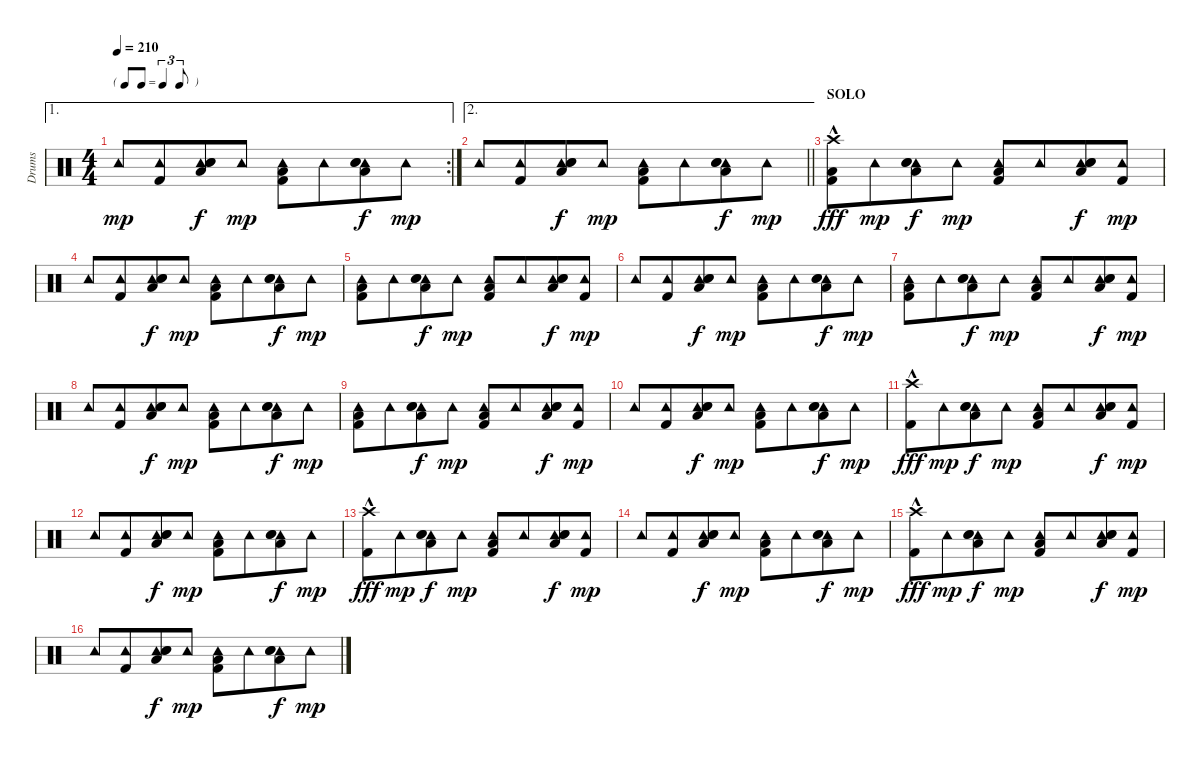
\track ("Drums" "Drums") {instrument percussion}
\staff {score}
\articulation defaults
\ae 1
\rc 2
\ts (4 4)
\tf triplet8th
\tempo 210
\clef neutral
\ks c "Tambourine (hit)".8{dy mp}
("Tambourine (hit)" "Kick (hit) 2").8{beam merge} ("Tambourine (hit)" "Hand Clap (hit)" "Low Tom (hit)" "Electric Snare (hit)").8{dy f} "Tambourine (hit)".8{dy mp} ("Tambourine (hit)" "Low Tom (hit)" "Kick (hit) 2").8 "Tambourine (hit)".8{beam merge} ("Tambourine (hit)" "Hand Clap (hit)" "Low Tom (hit)" "Electric Snare (hit)").8{dy f} "Tambourine (hit)".8{dy mp} |
\ae 2
\barLineRight lightlight "Tambourine (hit)".8
("Tambourine (hit)" "Kick (hit) 2").8{beam merge} ("Tambourine (hit)" "Hand Clap (hit)" "Low Tom (hit)" "Electric Snare (hit)").8{dy f} "Tambourine (hit)".8{dy mp} ("Tambourine (hit)" "Low Tom (hit)" "Kick (hit) 2").8 "Tambourine (hit)".8{beam merge} ("Tambourine (hit)" "Hand Clap (hit)" "Low Tom (hit)" "Electric Snare (hit)").8{dy f} "Tambourine (hit)".8{dy mp} |
\section ("" "SOLO")
("Crash high (hit)"{hac} "Low Tom (hit)" "Kick (hit) 2").8{dy fff} "Tambourine (hit)".8{dy mp beam merge} ("Tambourine (hit)" "Hand Clap (hit)" "Low Tom (hit)" "Electric Snare (hit)").8{dy f} "Tambourine (hit)".8{dy mp} ("Tambourine (hit)" "Low Tom (hit)" "Kick (hit) 2").8 "Tambourine (hit)".8{beam merge} ("Tambourine (hit)" "Hand Clap (hit)" "Low Tom (hit)" "Electric Snare (hit)").8{dy f} ("Tambourine (hit)" "Kick (hit) 2").8{dy mp} |
"Tambourine (hit)".8 ("Tambourine (hit)" "Kick (hit) 2").8{beam merge} ("Tambourine (hit)" "Hand Clap (hit)" "Low Tom (hit)" "Electric Snare (hit)").8{dy f} "Tambourine (hit)".8{dy mp} ("Tambourine (hit)" "Low Tom (hit)" "Kick (hit) 2").8 "Tambourine (hit)".8{beam merge} ("Tambourine (hit)" "Hand Clap (hit)" "Low Tom (hit)" "Electric Snare (hit)").8{dy f} "Tambourine (hit)".8{dy mp} |
("Tambourine (hit)" "Low Tom (hit)" "Kick (hit) 2").8 "Tambourine (hit)".8{beam merge} ("Tambourine (hit)" "Hand Clap (hit)" "Low Tom (hit)" "Electric Snare (hit)").8{dy f} "Tambourine (hit)".8{dy mp} ("Tambourine (hit)" "Low Tom (hit)" "Kick (hit) 2").8 "Tambourine (hit)".8{beam merge} ("Tambourine (hit)" "Hand Clap (hit)" "Low Tom (hit)" "Electric Snare (hit)").8{dy f} ("Tambourine (hit)" "Kick (hit) 2").8{dy mp} |
"Tambourine (hit)".8 ("Tambourine (hit)" "Kick (hit) 2").8{beam merge} ("Tambourine (hit)" "Hand Clap (hit)" "Low Tom (hit)" "Electric Snare (hit)").8{dy f} "Tambourine (hit)".8{dy mp} ("Tambourine (hit)" "Low Tom (hit)" "Kick (hit) 2").8 "Tambourine (hit)".8{beam merge} ("Tambourine (hit)" "Hand Clap (hit)" "Low Tom (hit)" "Electric Snare (hit)").8{dy f} "Tambourine (hit)".8{dy mp} |
("Tambourine (hit)" "Low Tom (hit)" "Kick (hit) 2").8 "Tambourine (hit)".8{beam merge} ("Tambourine (hit)" "Hand Clap (hit)" "Low Tom (hit)" "Electric Snare (hit)").8{dy f} "Tambourine (hit)".8{dy mp} ("Tambourine (hit)" "Low Tom (hit)" "Kick (hit) 2").8 "Tambourine (hit)".8{beam merge} ("Tambourine (hit)" "Hand Clap (hit)" "Low Tom (hit)" "Electric Snare (hit)").8{dy f} ("Tambourine (hit)" "Kick (hit) 2").8{dy mp} |
"Tambourine (hit)".8 ("Tambourine (hit)" "Kick (hit) 2").8{beam merge} ("Tambourine (hit)" "Hand Clap (hit)" "Low Tom (hit)" "Electric Snare (hit)").8{dy f} "Tambourine (hit)".8{dy mp} ("Tambourine (hit)" "Low Tom (hit)" "Kick (hit) 2").8 "Tambourine (hit)".8{beam merge} ("Tambourine (hit)" "Hand Clap (hit)" "Low Tom (hit)" "Electric Snare (hit)").8{dy f} "Tambourine (hit)".8{dy mp} |
("Tambourine (hit)" "Low Tom (hit)" "Kick (hit) 2").8 "Tambourine (hit)".8{beam merge} ("Tambourine (hit)" "Hand Clap (hit)" "Low Tom (hit)" "Electric Snare (hit)").8{dy f} "Tambourine (hit)".8{dy mp} ("Tambourine (hit)" "Low Tom (hit)" "Kick (hit) 2").8 "Tambourine (hit)".8{beam merge} ("Tambourine (hit)" "Hand Clap (hit)" "Low Tom (hit)" "Electric Snare (hit)").8{dy f} ("Tambourine (hit)" "Kick (hit) 2").8{dy mp} |
"Tambourine (hit)".8 ("Tambourine (hit)" "Kick (hit) 2").8{beam merge} ("Tambourine (hit)" "Hand Clap (hit)" "Low Tom (hit)" "Electric Snare (hit)").8{dy f} "Tambourine (hit)".8{dy mp} ("Tambourine (hit)" "Low Tom (hit)" "Kick (hit) 2").8 "Tambourine (hit)".8{beam merge} ("Tambourine (hit)" "Hand Clap (hit)" "Low Tom (hit)" "Electric Snare (hit)").8{dy f} "Tambourine (hit)".8{dy mp} |
("Crash high (hit)"{hac} "Kick (hit) 2").8{dy fff} "Tambourine (hit)".8{dy mp beam merge} ("Tambourine (hit)" "Hand Clap (hit)" "Low Tom (hit)" "Electric Snare (hit)").8{dy f} "Tambourine (hit)".8{dy mp} ("Tambourine (hit)" "Low Tom (hit)" "Kick (hit) 2").8 "Tambourine (hit)".8{beam merge} ("Tambourine (hit)" "Hand Clap (hit)" "Low Tom (hit)" "Electric Snare (hit)").8{dy f} ("Tambourine (hit)" "Kick (hit) 2").8{dy mp} |
"Tambourine (hit)".8 ("Tambourine (hit)" "Kick (hit) 2").8{beam merge} ("Tambourine (hit)" "Hand Clap (hit)" "Low Tom (hit)" "Electric Snare (hit)").8{dy f} "Tambourine (hit)".8{dy mp} ("Tambourine (hit)" "Low Tom (hit)" "Kick (hit) 2").8 "Tambourine (hit)".8{beam merge} ("Tambourine (hit)" "Hand Clap (hit)" "Low Tom (hit)" "Electric Snare (hit)").8{dy f} "Tambourine (hit)".8{dy mp} |
("Crash high (hit)"{hac} "Kick (hit) 2").8{dy fff} "Tambourine (hit)".8{dy mp beam merge} ("Tambourine (hit)" "Hand Clap (hit)" "Low Tom (hit)" "Electric Snare (hit)").8{dy f} "Tambourine (hit)".8{dy mp} ("Tambourine (hit)" "Low Tom (hit)" "Kick (hit) 2").8 "Tambourine (hit)".8{beam merge} ("Tambourine (hit)" "Hand Clap (hit)" "Low Tom (hit)" "Electric Snare (hit)").8{dy f} ("Tambourine (hit)" "Kick (hit) 2").8{dy mp} |
"Tambourine (hit)".8 ("Tambourine (hit)" "Kick (hit) 2").8{beam merge} ("Tambourine (hit)" "Hand Clap (hit)" "Low Tom (hit)" "Electric Snare (hit)").8{dy f} "Tambourine (hit)".8{dy mp} ("Tambourine (hit)" "Low Tom (hit)" "Kick (hit) 2").8 "Tambourine (hit)".8{beam merge} ("Tambourine (hit)" "Hand Clap (hit)" "Low Tom (hit)" "Electric Snare (hit)").8{dy f} "Tambourine (hit)".8{dy mp} |
("Crash high (hit)"{hac} "Kick (hit) 2").8{dy fff} "Tambourine (hit)".8{dy mp beam merge} ("Tambourine (hit)" "Hand Clap (hit)" "Low Tom (hit)" "Electric Snare (hit)").8{dy f} "Tambourine (hit)".8{dy mp} ("Tambourine (hit)" "Low Tom (hit)" "Kick (hit) 2").8 "Tambourine (hit)".8{beam merge} ("Tambourine (hit)" "Hand Clap (hit)" "Low Tom (hit)" "Electric Snare (hit)").8{dy f} ("Tambourine (hit)" "Kick (hit) 2").8{dy mp} |
"Tambourine (hit)".8 ("Tambourine (hit)" "Kick (hit) 2").8{beam merge} ("Tambourine (hit)" "Hand Clap (hit)" "Low Tom (hit)" "Electric Snare (hit)").8{dy f} "Tambourine (hit)".8{dy mp} ("Tambourine (hit)" "Low Tom (hit)" "Kick (hit) 2").8 "Tambourine (hit)".8{beam merge} ("Tambourine (hit)" "Hand Clap (hit)" "Low Tom (hit)" "Electric Snare (hit)").8{dy f} "Tambourine (hit)".8{dy mp}
